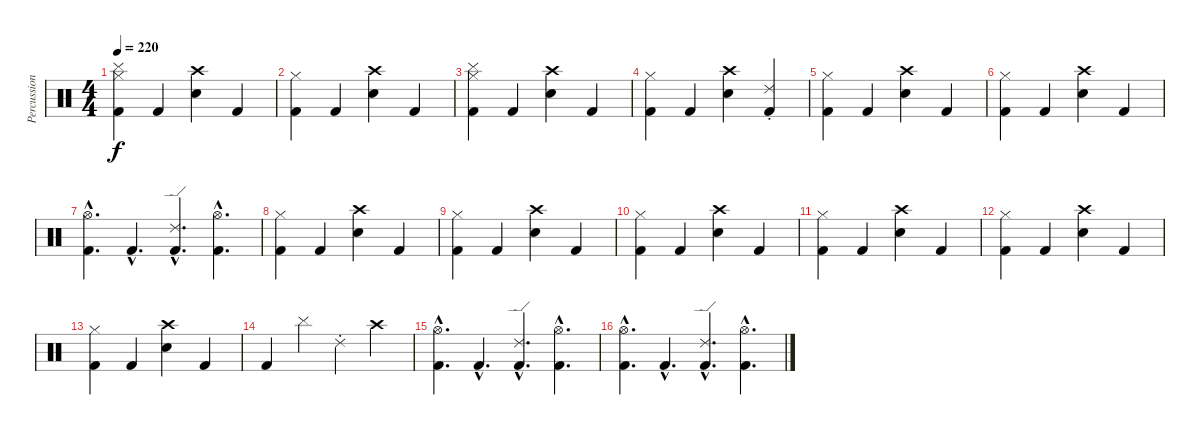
\track ("Percussion" "Percussion") {instrument percussion}
\staff {score}
\articulation defaults
\ts (4 4)
\tempo 220
\clef neutral
\ks c
("Kick (hit) 2" "Hi-Hat (closed)" "Cymbal (hit)").4{dy f volume 16} "Kick (hit) 2".4 ("Snare (hit) 2" "Crash high (hit)").4 "Kick (hit) 2".4 |
("Kick (hit) 2" "Hi-Hat (closed)").4 "Kick (hit) 2".4 ("Snare (hit) 2" "Crash high (hit)").4 "Kick (hit) 2".4 |
("Kick (hit) 2" "Hi-Hat (closed)" "Cymbal (hit)").4 "Kick (hit) 2".4 ("Snare (hit) 2" "Crash high (hit)").4 "Kick (hit) 2".4 |
("Kick (hit) 2" "Hi-Hat (closed)").4 "Kick (hit) 2".4 ("Snare (hit) 2" "Crash high (hit)").4 ("Kick (hit) 2" "Ride (choke) 2").4 |
("Kick (hit) 2" "Hi-Hat (closed)").4 "Kick (hit) 2".4 ("Snare (hit) 2" "Crash high (hit)").4 "Kick (hit) 2".4 |
("Kick (hit) 2" "Hi-Hat (closed)").4 "Kick (hit) 2".4 ("Snare (hit) 2" "Crash high (hit)").4 "Kick (hit) 2".4 |
("Kick (hit) 2"{hac} "Hi-Hat (open)"{hac}).4{d} "Kick (hit) 2"{hac}.4{d} ("Kick (hit) 2"{hac} "Ride (edge) 2"{hac}).4{d} ("Kick (hit) 2"{hac} "Hi-Hat (open)"{hac}).4{d} |
("Kick (hit) 2" "Hi-Hat (closed)").4 "Kick (hit) 2".4 ("Snare (hit) 2" "Crash high (hit)").4 "Kick (hit) 2".4 |
("Kick (hit) 2" "Hi-Hat (closed)").4 "Kick (hit) 2".4 ("Snare (hit) 2" "Crash high (hit)").4 "Kick (hit) 2".4 |
("Kick (hit) 2" "Hi-Hat (closed)").4 "Kick (hit) 2".4 ("Snare (hit) 2" "Crash high (hit)").4 "Kick (hit) 2".4 |
("Kick (hit) 2" "Hi-Hat (closed)").4 "Kick (hit) 2".4 ("Snare (hit) 2" "Crash high (hit)").4 "Kick (hit) 2".4 |
("Kick (hit) 2" "Hi-Hat (closed)").4 "Kick (hit) 2".4 ("Snare (hit) 2" "Crash high (hit)").4 "Kick (hit) 2".4 |
("Kick (hit) 2" "Hi-Hat (closed)").4 "Kick (hit) 2".4 ("Snare (hit) 2" "Crash high (hit)").4 "Kick (hit) 2".4 |
"Kick (hit) 2".4 "Cymbal (hit)".4 "Ride (choke) 2".4 "Crash high (hit)".4 |
("Kick (hit) 2"{hac} "Hi-Hat (open)"{hac}).4{d} "Kick (hit) 2"{hac}.4{d} ("Kick (hit) 2"{hac} "Ride (edge) 2"{hac}).4{d} ("Kick (hit) 2"{hac} "Hi-Hat (open)"{hac}).4{d} |
("Kick (hit) 2"{hac} "Hi-Hat (open)"{hac}).4{d} "Kick (hit) 2"{hac}.4{d} ("Kick (hit) 2"{hac} "Ride (edge) 2"{hac}).4{d} ("Kick (hit) 2"{hac} "Hi-Hat (open)"{hac}).4{d}
